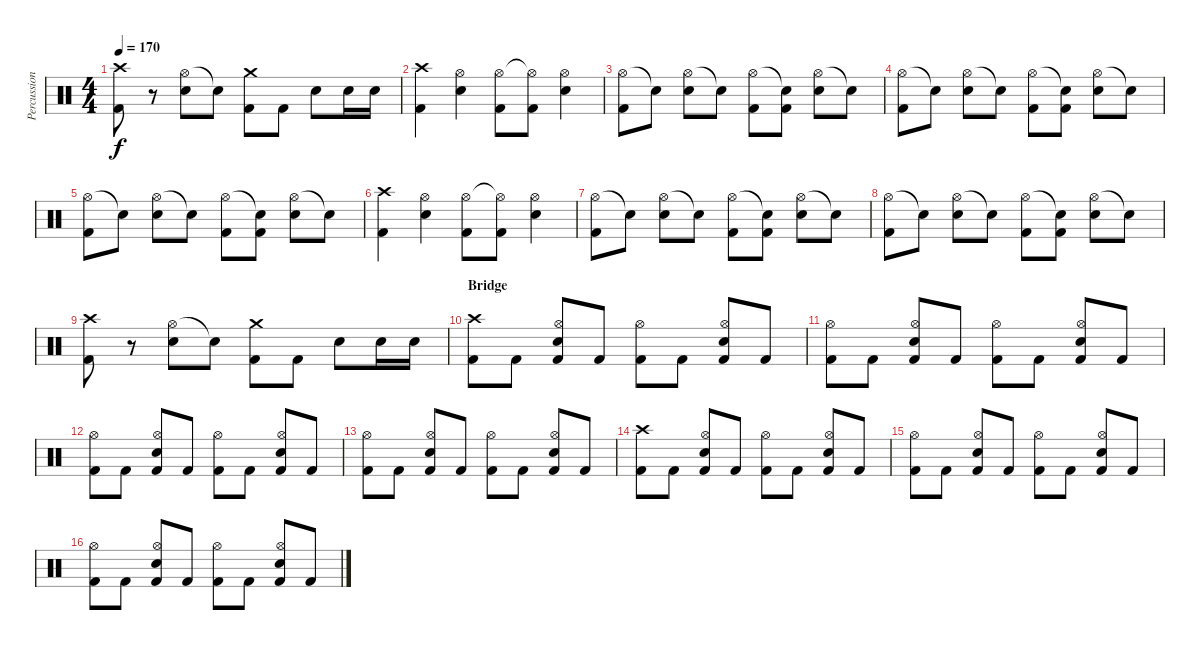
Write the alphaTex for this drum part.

\track ("Percussion" "Percussion") {instrument percussion}
\staff {score}
\articulation defaults
\ts (4 4)
\tempo 170
\clef neutral
\ks c
("Crash high (hit)" "Kick (hit) 2").8{dy f} r.8 ("Hi-Hat (open)" "Electric Snare (hit)").8 "Snare (hit)"{t}.8 ("Crash medium (hit)" "Kick (hit) 2").8 "Kick (hit) 2".8 "Electric Snare (hit)".8 "Electric Snare (hit)".16 "Electric Snare (hit)".16 |
("Crash high (hit)" "Kick (hit) 2").4 ("Hi-Hat (open)" "Electric Snare (hit)").4 ("Hi-Hat (open)" "Kick (hit) 2").8 ("Hi-Hat (open)"{t} "Kick (hit) 2").8 ("Hi-Hat (open)" "Electric Snare (hit)").4 |
("Hi-Hat (open)" "Kick (hit) 2").8 "Snare (hit)"{t}.8 ("Hi-Hat (open)" "Electric Snare (hit)").8 "Snare (hit)"{t}.8 ("Hi-Hat (open)" "Kick (hit) 2").8 ("Snare (hit)"{t} "Kick (hit) 2").8 ("Hi-Hat (open)" "Electric Snare (hit)").8 "Snare (hit)"{t}.8 |
("Hi-Hat (open)" "Kick (hit) 2").8 "Snare (hit)"{t}.8 ("Hi-Hat (open)" "Electric Snare (hit)").8 "Snare (hit)"{t}.8 ("Hi-Hat (open)" "Kick (hit) 2").8 ("Snare (hit)"{t} "Kick (hit) 2").8 ("Hi-Hat (open)" "Electric Snare (hit)").8 "Snare (hit)"{t}.8 |
("Hi-Hat (open)" "Kick (hit) 2").8 "Snare (hit)"{t}.8 ("Hi-Hat (open)" "Electric Snare (hit)").8 "Snare (hit)"{t}.8 ("Hi-Hat (open)" "Kick (hit) 2").8 ("Snare (hit)"{t} "Kick (hit) 2").8 ("Hi-Hat (open)" "Electric Snare (hit)").8 "Snare (hit)"{t}.8 |
("Crash high (hit)" "Kick (hit) 2").4 ("Hi-Hat (open)" "Electric Snare (hit)").4 ("Hi-Hat (open)" "Kick (hit) 2").8 ("Hi-Hat (open)"{t} "Kick (hit) 2").8 ("Hi-Hat (open)" "Electric Snare (hit)").4 |
("Hi-Hat (open)" "Kick (hit) 2").8 "Snare (hit)"{t}.8 ("Hi-Hat (open)" "Electric Snare (hit)").8 "Snare (hit)"{t}.8 ("Hi-Hat (open)" "Kick (hit) 2").8 ("Snare (hit)"{t} "Kick (hit) 2").8 ("Hi-Hat (open)" "Electric Snare (hit)").8 "Snare (hit)"{t}.8 |
("Hi-Hat (open)" "Kick (hit) 2").8 "Snare (hit)"{t}.8 ("Hi-Hat (open)" "Electric Snare (hit)").8 "Snare (hit)"{t}.8 ("Hi-Hat (open)" "Kick (hit) 2").8 ("Snare (hit)"{t} "Kick (hit) 2").8 ("Hi-Hat (open)" "Electric Snare (hit)").8 "Snare (hit)"{t}.8 |
("Crash high (hit)" "Kick (hit) 2").8 r.8 ("Hi-Hat (open)" "Electric Snare (hit)").8 "Snare (hit)"{t}.8 ("Crash medium (hit)" "Kick (hit) 2").8 "Kick (hit) 2".8 "Electric Snare (hit)".8 "Electric Snare (hit)".16 "Electric Snare (hit)".16 |
\section ("" "Bridge")
("Crash high (hit)" "Kick (hit) 2").8 "Kick (hit) 2".8 ("Hi-Hat (open)" "Electric Snare (hit)" "Kick (hit) 2").8 "Kick (hit) 2".8 ("Hi-Hat (open)" "Kick (hit) 2").8 "Kick (hit) 2".8 ("Hi-Hat (open)" "Electric Snare (hit)" "Kick (hit) 2").8 "Kick (hit) 2".8 |
("Hi-Hat (open)" "Kick (hit) 2").8 "Kick (hit) 2".8 ("Hi-Hat (open)" "Electric Snare (hit)" "Kick (hit) 2").8 "Kick (hit) 2".8 ("Hi-Hat (open)" "Kick (hit) 2").8 "Kick (hit) 2".8 ("Hi-Hat (open)" "Electric Snare (hit)" "Kick (hit) 2").8 "Kick (hit) 2".8 |
("Hi-Hat (open)" "Kick (hit) 2").8 "Kick (hit) 2".8 ("Hi-Hat (open)" "Electric Snare (hit)" "Kick (hit) 2").8 "Kick (hit) 2".8 ("Hi-Hat (open)" "Kick (hit) 2").8 "Kick (hit) 2".8 ("Hi-Hat (open)" "Electric Snare (hit)" "Kick (hit) 2").8 "Kick (hit) 2".8 |
("Hi-Hat (open)" "Kick (hit) 2").8 "Kick (hit) 2".8 ("Hi-Hat (open)" "Electric Snare (hit)" "Kick (hit) 2").8 "Kick (hit) 2".8 ("Hi-Hat (open)" "Kick (hit) 2").8 "Kick (hit) 2".8 ("Hi-Hat (open)" "Electric Snare (hit)" "Kick (hit) 2").8 "Kick (hit) 2".8 |
("Crash high (hit)" "Kick (hit) 2").8 "Kick (hit) 2".8 ("Hi-Hat (open)" "Electric Snare (hit)" "Kick (hit) 2").8 "Kick (hit) 2".8 ("Hi-Hat (open)" "Kick (hit) 2").8 "Kick (hit) 2".8 ("Hi-Hat (open)" "Electric Snare (hit)" "Kick (hit) 2").8 "Kick (hit) 2".8 |
("Hi-Hat (open)" "Kick (hit) 2").8 "Kick (hit) 2".8 ("Hi-Hat (open)" "Electric Snare (hit)" "Kick (hit) 2").8 "Kick (hit) 2".8 ("Hi-Hat (open)" "Kick (hit) 2").8 "Kick (hit) 2".8 ("Hi-Hat (open)" "Electric Snare (hit)" "Kick (hit) 2").8 "Kick (hit) 2".8 |
("Hi-Hat (open)" "Kick (hit) 2").8 "Kick (hit) 2".8 ("Hi-Hat (open)" "Electric Snare (hit)" "Kick (hit) 2").8 "Kick (hit) 2".8 ("Hi-Hat (open)" "Kick (hit) 2").8 "Kick (hit) 2".8 ("Hi-Hat (open)" "Electric Snare (hit)" "Kick (hit) 2").8 "Kick (hit) 2".8
